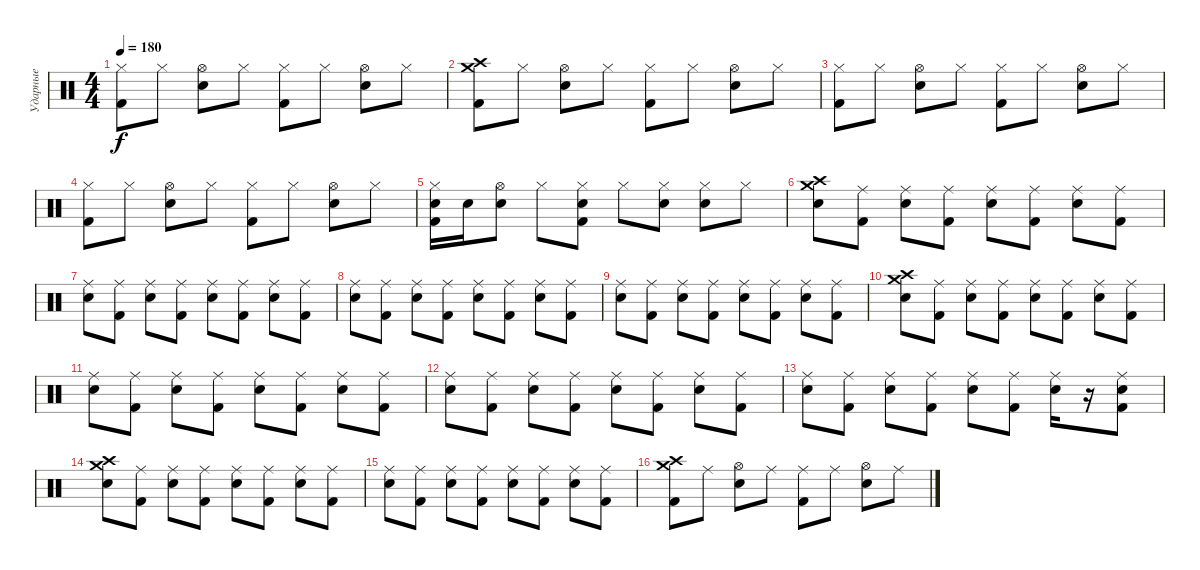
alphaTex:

\track ("Ударные" "Ударные") {instrument percussion}
\staff {score}
\articulation defaults
\ts (4 4)
\tempo 180
\clef neutral
\ks c
("Hi-Hat (closed)" "Kick (hit) 2").8{dy f} "Hi-Hat (closed)".8 ("Hi-Hat (open)" "Snare (hit) 2").8 "Hi-Hat (closed)".8 ("Hi-Hat (closed)" "Kick (hit) 2").8 "Hi-Hat (closed)".8 ("Hi-Hat (open)" "Snare (hit) 2").8 "Hi-Hat (closed)".8 |
("Crash high (hit)" "Crash medium (hit)" "Kick (hit) 2").8 "Hi-Hat (closed)".8 ("Hi-Hat (open)" "Snare (hit) 2").8 "Hi-Hat (closed)".8 ("Hi-Hat (closed)" "Kick (hit) 2").8 "Hi-Hat (closed)".8 ("Hi-Hat (open)" "Snare (hit) 2").8 "Hi-Hat (closed)".8 |
("Hi-Hat (closed)" "Kick (hit) 2").8 "Hi-Hat (closed)".8 ("Hi-Hat (open)" "Snare (hit) 2").8 "Hi-Hat (closed)".8 ("Hi-Hat (closed)" "Kick (hit) 2").8 "Hi-Hat (closed)".8 ("Hi-Hat (open)" "Snare (hit) 2").8 "Hi-Hat (closed)".8 |
("Hi-Hat (closed)" "Kick (hit) 2").8 "Hi-Hat (closed)".8 ("Hi-Hat (open)" "Snare (hit) 2").8 "Hi-Hat (closed)".8 ("Hi-Hat (closed)" "Kick (hit) 2").8 "Hi-Hat (closed)".8 ("Hi-Hat (open)" "Snare (hit) 2").8 "Hi-Hat (closed)".8 |
("Hi-Hat (closed)" "Snare (hit) 2" "Kick (hit) 2").16 "Snare (hit) 2".16 ("Hi-Hat (open)" "Snare (hit) 2").8 "Hi-Hat (closed)".8 ("Hi-Hat (closed)" "Snare (hit) 2" "Kick (hit) 2").8 "Hi-Hat (closed)".8 ("Hi-Hat (closed)" "Snare (hit) 2").8 ("Hi-Hat (closed)" "Snare (hit) 2").8 "Hi-Hat (closed)".8 |
("Crash high (hit)" "Snare (hit) 2" "Crash medium (hit)").8 ("Ride (middle)" "Kick (hit) 2").8 ("Ride (middle)" "Snare (hit) 2").8 ("Ride (middle)" "Kick (hit) 2").8 ("Ride (middle)" "Snare (hit) 2").8 ("Ride (middle)" "Kick (hit) 2").8 ("Ride (middle)" "Snare (hit) 2").8 ("Ride (middle)" "Kick (hit) 2").8 |
("Ride (middle)" "Snare (hit) 2").8 ("Ride (middle)" "Kick (hit) 2").8 ("Ride (middle)" "Snare (hit) 2").8 ("Ride (middle)" "Kick (hit) 2").8 ("Ride (middle)" "Snare (hit) 2").8 ("Ride (middle)" "Kick (hit) 2").8 ("Ride (middle)" "Snare (hit) 2").8 ("Ride (middle)" "Kick (hit) 2").8 |
("Ride (middle)" "Snare (hit) 2").8 ("Ride (middle)" "Kick (hit) 2").8 ("Ride (middle)" "Snare (hit) 2").8 ("Ride (middle)" "Kick (hit) 2").8 ("Ride (middle)" "Snare (hit) 2").8 ("Ride (middle)" "Kick (hit) 2").8 ("Ride (middle)" "Snare (hit) 2").8 ("Ride (middle)" "Kick (hit) 2").8 |
("Ride (middle)" "Snare (hit) 2").8 ("Ride (middle)" "Kick (hit) 2").8 ("Ride (middle)" "Snare (hit) 2").8 ("Ride (middle)" "Kick (hit) 2").8 ("Ride (middle)" "Snare (hit) 2").8 ("Ride (middle)" "Kick (hit) 2").8 ("Ride (middle)" "Snare (hit) 2").8 ("Ride (middle)" "Kick (hit) 2").8 |
("Crash high (hit)" "Snare (hit) 2" "Crash medium (hit)").8 ("Ride (middle)" "Kick (hit) 2").8 ("Ride (middle)" "Snare (hit) 2").8 ("Ride (middle)" "Kick (hit) 2").8 ("Ride (middle)" "Snare (hit) 2").8 ("Ride (middle)" "Kick (hit) 2").8 ("Ride (middle)" "Snare (hit) 2").8 ("Ride (middle)" "Kick (hit) 2").8 |
("Ride (middle)" "Snare (hit) 2").8 ("Ride (middle)" "Kick (hit) 2").8 ("Ride (middle)" "Snare (hit) 2").8 ("Ride (middle)" "Kick (hit) 2").8 ("Ride (middle)" "Snare (hit) 2").8 ("Ride (middle)" "Kick (hit) 2").8 ("Ride (middle)" "Snare (hit) 2").8 ("Ride (middle)" "Kick (hit) 2").8 |
("Ride (middle)" "Snare (hit) 2").8 ("Ride (middle)" "Kick (hit) 2").8 ("Ride (middle)" "Snare (hit) 2").8 ("Ride (middle)" "Kick (hit) 2").8 ("Ride (middle)" "Snare (hit) 2").8 ("Ride (middle)" "Kick (hit) 2").8 ("Ride (middle)" "Snare (hit) 2").8 ("Ride (middle)" "Kick (hit) 2").8 |
("Ride (middle)" "Snare (hit) 2").8 ("Ride (middle)" "Kick (hit) 2").8 ("Ride (middle)" "Snare (hit) 2").8 ("Ride (middle)" "Kick (hit) 2").8 ("Ride (middle)" "Snare (hit) 2").8 ("Ride (middle)" "Kick (hit) 2").8 ("Ride (middle)" "Snare (hit) 2").16 r.16 ("Ride (middle)" "Snare (hit) 2" "Kick (hit) 2").8 |
("Crash high (hit)" "Snare (hit) 2" "Crash medium (hit)").8 ("Ride (middle)" "Kick (hit) 2").8 ("Ride (middle)" "Snare (hit) 2").8 ("Ride (middle)" "Kick (hit) 2").8 ("Ride (middle)" "Snare (hit) 2").8 ("Ride (middle)" "Kick (hit) 2").8 ("Ride (middle)" "Snare (hit) 2").8 ("Ride (middle)" "Kick (hit) 2").8 |
("Ride (middle)" "Snare (hit) 2").8 ("Ride (middle)" "Kick (hit) 2").8 ("Ride (middle)" "Snare (hit) 2").8 ("Ride (middle)" "Kick (hit) 2").8 ("Ride (middle)" "Snare (hit) 2").8 ("Ride (middle)" "Kick (hit) 2").8 ("Ride (middle)" "Snare (hit) 2").8 ("Ride (middle)" "Kick (hit) 2").8 |
("Crash high (hit)" "Crash medium (hit)" "Kick (hit) 2").8 "Ride (middle)".8 ("Hi-Hat (open)" "Snare (hit) 2").8 "Ride (middle)".8 ("Ride (middle)" "Kick (hit) 2").8 "Ride (middle)".8 ("Hi-Hat (open)" "Snare (hit) 2").8 "Ride (middle)".8
